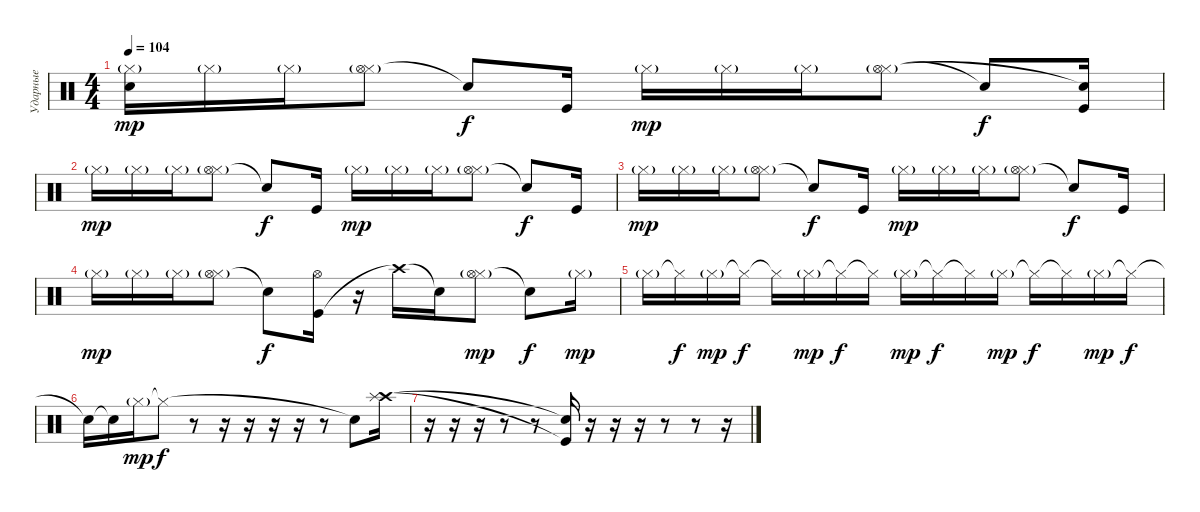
\track ("Ударные" "Ударные") {instrument percussion}
\staff {score}
\articulation defaults
\ts (4 4)
\tempo 104
\clef neutral
\ks c
("Hi-Hat (closed)"{g} "Snare (hit)"{t}).16{dy mp} "Hi-Hat (closed)"{g}.16 "Hi-Hat (closed)"{g}.16 ("Hi-Hat (closed)"{g} "Hi-Hat (open)").8 "Snare (hit)"{t}.8{dy f} "Kick (hit)".16 "Hi-Hat (closed)"{g}.16{dy mp} "Hi-Hat (closed)"{g}.16 "Hi-Hat (closed)"{g}.16 ("Hi-Hat (closed)"{g} "Hi-Hat (open)").8 "Snare (hit)"{t}.8{dy f} ("Kick (hit)" "Snare (hit)"{t}).16 |
"Hi-Hat (closed)"{g}.16{dy mp} "Hi-Hat (closed)"{g}.16 "Hi-Hat (closed)"{g}.16 ("Hi-Hat (closed)"{g} "Hi-Hat (open)").8 "Snare (hit)"{t}.8{dy f} "Kick (hit)".16 "Hi-Hat (closed)"{g}.16{dy mp} "Hi-Hat (closed)"{g}.16 "Hi-Hat (closed)"{g}.16 ("Hi-Hat (closed)"{g} "Hi-Hat (open)").8 "Snare (hit)"{t}.8{dy f} "Kick (hit)".16 |
"Hi-Hat (closed)"{g}.16{dy mp} "Hi-Hat (closed)"{g}.16 "Hi-Hat (closed)"{g}.16 ("Hi-Hat (closed)"{g} "Hi-Hat (open)").8 "Snare (hit)"{t}.8{dy f} "Kick (hit)".16 "Hi-Hat (closed)"{g}.16{dy mp} "Hi-Hat (closed)"{g}.16 "Hi-Hat (closed)"{g}.16 ("Hi-Hat (closed)"{g} "Hi-Hat (open)").8 "Snare (hit)"{t}.8{dy f} "Kick (hit)".16 |
"Hi-Hat (closed)"{g}.16{dy mp} "Hi-Hat (closed)"{g}.16 "Hi-Hat (closed)"{g}.16 ("Hi-Hat (closed)"{g} "Hi-Hat (open)").8 "Snare (hit)"{t}.8{dy f} ("Kick (hit)" "Hi-Hat (open)").16 r.16 "Crash high (hit)"{t}.16 "Snare (hit)"{t}.16 ("Hi-Hat (closed)"{g} "Hi-Hat (open)").8{dy mp} "Snare (hit)"{t}.8{dy f} "Hi-Hat (closed)"{g}.16{dy mp} |
"Hi-Hat (closed)"{g}.16 "Hi-Hat (closed)"{t}.16{dy f} "Hi-Hat (closed)"{g}.16{dy mp} "Hi-Hat (closed)"{t}.16{dy f} "Hi-Hat (closed)"{t}.16 "Hi-Hat (closed)"{g}.16{dy mp} "Hi-Hat (closed)"{t}.16{dy f} "Hi-Hat (closed)"{t}.16 "Hi-Hat (closed)"{g}.16{dy mp} "Hi-Hat (closed)"{t}.16{dy f} "Hi-Hat (closed)"{t}.16 "Hi-Hat (closed)"{g}.16{dy mp} "Hi-Hat (closed)"{t}.16{dy f} "Hi-Hat (closed)"{t}.16 "Hi-Hat (closed)"{g}.16{dy mp} "Hi-Hat (closed)"{t}.16{dy f} |
"Snare (hit)"{t}.16 "Snare (hit)"{t}.16 "Hi-Hat (closed)"{g}.16{dy mp} "Hi-Hat (closed)"{t}.8{dy f} r.8 r.16 r.16 r.16 r.16 r.8 "Snare (hit)"{t}.8 ("Crash high (hit)" "Splash (hit)").16 |
r.16 r.16 r.16 r.8 r.8 ("Kick (hit)"{t} "Snare (hit)"{t}).16 r.16 r.16 r.16 r.8 r.8 r.16
